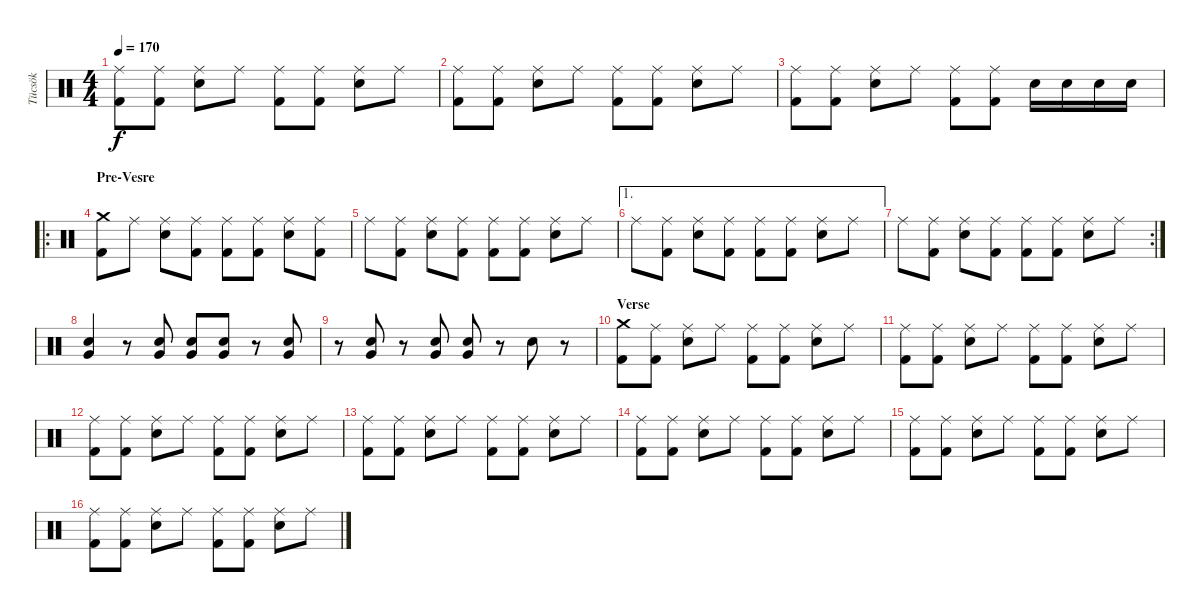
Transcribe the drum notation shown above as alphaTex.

\track ("Tücsök" "Tücsök") {instrument percussion}
\staff {score}
\articulation defaults
\ts (4 4)
\tempo 170
\clef neutral
\ks c
("Ride (middle)" "Kick (hit) 2").8{dy f} ("Ride (middle)" "Kick (hit) 2").8 ("Ride (middle)" "Electric Snare (hit)").8 "Ride (middle)".8 ("Ride (middle)" "Kick (hit) 2").8 ("Ride (middle)" "Kick (hit) 2").8 ("Ride (middle)" "Electric Snare (hit)").8 "Ride (middle)".8 |
("Ride (middle)" "Kick (hit) 2").8 ("Ride (middle)" "Kick (hit) 2").8 ("Ride (middle)" "Electric Snare (hit)").8 "Ride (middle)".8 ("Ride (middle)" "Kick (hit) 2").8 ("Ride (middle)" "Kick (hit) 2").8 ("Ride (middle)" "Electric Snare (hit)").8 "Ride (middle)".8 |
("Ride (middle)" "Kick (hit) 2").8 ("Ride (middle)" "Kick (hit) 2").8 ("Ride (middle)" "Electric Snare (hit)").8 "Ride (middle)".8 ("Ride (middle)" "Kick (hit) 2").8 ("Ride (middle)" "Kick (hit) 2").8 "Electric Snare (hit)".16 "Electric Snare (hit)".16 "Electric Snare (hit)".16 "Electric Snare (hit)".16 |
\ro
\section ("" "Pre-Vesre")
("Crash medium (hit)" "Kick (hit) 2").8 "Ride (middle)".8 ("Ride (middle)" "Electric Snare (hit)").8 ("Ride (middle)" "Kick (hit) 2").8 ("Ride (middle)" "Kick (hit) 2").8 ("Ride (middle)" "Kick (hit) 2").8 ("Ride (middle)" "Electric Snare (hit)").8 ("Ride (middle)" "Kick (hit) 2").8 |
"Ride (middle)".8 ("Ride (middle)" "Kick (hit) 2").8 ("Ride (middle)" "Electric Snare (hit)").8 ("Ride (middle)" "Kick (hit) 2").8 ("Ride (middle)" "Kick (hit) 2").8 ("Ride (middle)" "Kick (hit) 2").8 ("Ride (middle)" "Electric Snare (hit)").8 "Ride (middle)".8 |
\ae 1 "Ride (middle)".8
("Ride (middle)" "Kick (hit) 2").8 ("Ride (middle)" "Electric Snare (hit)").8 ("Ride (middle)" "Kick (hit) 2").8 ("Ride (middle)" "Kick (hit) 2").8 ("Ride (middle)" "Kick (hit) 2").8 ("Ride (middle)" "Electric Snare (hit)").8 "Ride (middle)".8 |
\rc 2 "Ride (middle)".8
("Ride (middle)" "Kick (hit) 2").8 ("Ride (middle)" "Electric Snare (hit)").8 ("Ride (middle)" "Kick (hit) 2").8 ("Ride (middle)" "Kick (hit) 2").8 ("Ride (middle)" "Kick (hit) 2").8 ("Ride (middle)" "Electric Snare (hit)").8 "Ride (middle)".8 |
("Electric Snare (hit)" "Very Low Tom (hit)").4 r.8 ("Electric Snare (hit)" "Very Low Tom (hit)").8 ("Electric Snare (hit)" "Very Low Tom (hit)").8 ("Electric Snare (hit)" "Very Low Tom (hit)").8 r.8 ("Electric Snare (hit)" "Very Low Tom (hit)").8 |
r.8 ("Electric Snare (hit)" "Very Low Tom (hit)").8 r.8 ("Electric Snare (hit)" "Very Low Tom (hit)").8 ("Electric Snare (hit)" "Very Low Tom (hit)").8 r.8 "Snare (hit) 2".8 r.8 |
\section ("" "Verse")
("Crash medium (hit)" "Kick (hit) 2").8 ("Ride (middle)" "Kick (hit) 2").8 ("Ride (middle)" "Electric Snare (hit)").8 "Ride (middle)".8 ("Ride (middle)" "Kick (hit) 2").8 ("Ride (middle)" "Kick (hit) 2").8 ("Ride (middle)" "Electric Snare (hit)").8 "Ride (middle)".8 |
("Ride (middle)" "Kick (hit) 2").8 ("Ride (middle)" "Kick (hit) 2").8 ("Ride (middle)" "Electric Snare (hit)").8 "Ride (middle)".8 ("Ride (middle)" "Kick (hit) 2").8 ("Ride (middle)" "Kick (hit) 2").8 ("Ride (middle)" "Electric Snare (hit)").8 "Ride (middle)".8 |
("Ride (middle)" "Kick (hit) 2").8 ("Ride (middle)" "Kick (hit) 2").8 ("Ride (middle)" "Electric Snare (hit)").8 "Ride (middle)".8 ("Ride (middle)" "Kick (hit) 2").8 ("Ride (middle)" "Kick (hit) 2").8 ("Ride (middle)" "Electric Snare (hit)").8 "Ride (middle)".8 |
("Ride (middle)" "Kick (hit) 2").8 ("Ride (middle)" "Kick (hit) 2").8 ("Ride (middle)" "Electric Snare (hit)").8 "Ride (middle)".8 ("Ride (middle)" "Kick (hit) 2").8 ("Ride (middle)" "Kick (hit) 2").8 ("Ride (middle)" "Electric Snare (hit)").8 "Ride (middle)".8 |
("Ride (middle)" "Kick (hit) 2").8 ("Ride (middle)" "Kick (hit) 2").8 ("Ride (middle)" "Electric Snare (hit)").8 "Ride (middle)".8 ("Ride (middle)" "Kick (hit) 2").8 ("Ride (middle)" "Kick (hit) 2").8 ("Ride (middle)" "Electric Snare (hit)").8 "Ride (middle)".8 |
("Ride (middle)" "Kick (hit) 2").8 ("Ride (middle)" "Kick (hit) 2").8 ("Ride (middle)" "Electric Snare (hit)").8 "Ride (middle)".8 ("Ride (middle)" "Kick (hit) 2").8 ("Ride (middle)" "Kick (hit) 2").8 ("Ride (middle)" "Electric Snare (hit)").8 "Ride (middle)".8 |
("Ride (middle)" "Kick (hit) 2").8 ("Ride (middle)" "Kick (hit) 2").8 ("Ride (middle)" "Electric Snare (hit)").8 "Ride (middle)".8 ("Ride (middle)" "Kick (hit) 2").8 ("Ride (middle)" "Kick (hit) 2").8 ("Ride (middle)" "Electric Snare (hit)").8 "Ride (middle)".8
